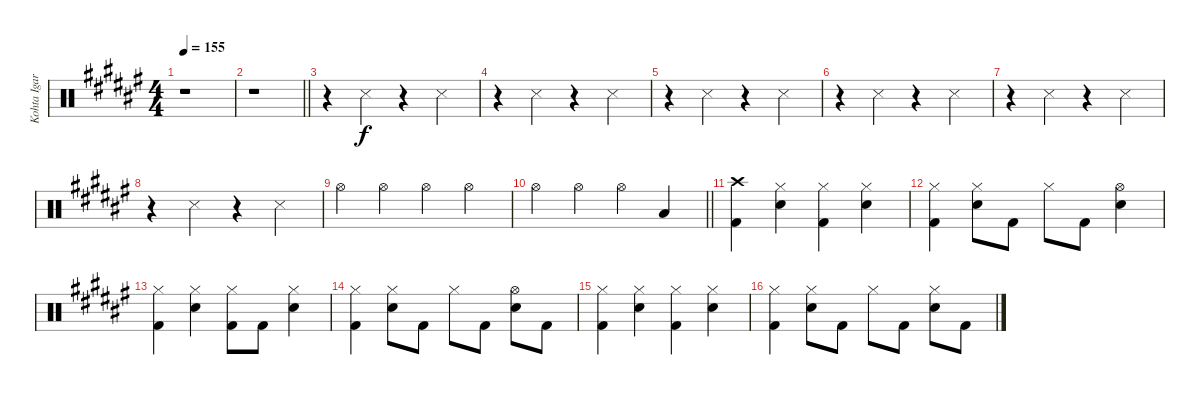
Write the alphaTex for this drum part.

\track ("Kohta Igarashi" "Kohta Igar") {instrument percussion}
\staff {score}
\articulation defaults
\ts (4 4)
\tempo 155
\clef neutral
\ks f#
r.1{dy f} |
\barLineRight lightlight
r.1 |
r.4 "Snare (side stick) 3".4 r.4 "Snare (side stick) 3".4 |
r.4 "Snare (side stick) 3".4 r.4 "Snare (side stick) 3".4 |
r.4 "Snare (side stick) 3".4 r.4 "Snare (side stick) 3".4 |
r.4 "Snare (side stick) 3".4 r.4 "Snare (side stick) 3".4 |
r.4 "Snare (side stick) 3".4 r.4 "Snare (side stick) 3".4 |
r.4 "Snare (side stick) 3".4 r.4 "Snare (side stick) 3".4 |
"Hi-Hat (open)".4 "Hi-Hat (open)".4 "Hi-Hat (open)".4 "Hi-Hat (open)".4 |
\barLineRight lightlight "Hi-Hat (open)".4 "Hi-Hat (open)".4 "Hi-Hat (open)".4 "Low Tom (hit)".4
|
("Crash high (hit)" "Kick (hit) 2").4 ("Hi-Hat (closed)" "Electric Snare (hit)").4 ("Hi-Hat (closed)" "Kick (hit) 2").4 ("Hi-Hat (closed)" "Electric Snare (hit)").4 |
("Hi-Hat (closed)" "Kick (hit) 2").4 ("Hi-Hat (closed)" "Electric Snare (hit)").8 "Kick (hit) 2".8 "Hi-Hat (closed)".8 "Kick (hit) 2".8 ("Hi-Hat (open)" "Electric Snare (hit)").4 |
("Hi-Hat (closed)" "Kick (hit) 2").4 ("Hi-Hat (closed)" "Electric Snare (hit)").4 ("Hi-Hat (closed)" "Kick (hit) 2").8 "Kick (hit) 2".8 ("Hi-Hat (closed)" "Electric Snare (hit)").4 |
("Hi-Hat (closed)" "Kick (hit) 2").4 ("Hi-Hat (closed)" "Electric Snare (hit)").8 "Kick (hit) 2".8 "Hi-Hat (closed)".8 "Kick (hit) 2".8 ("Hi-Hat (open)" "Electric Snare (hit)").8 "Kick (hit) 2".8 |
("Hi-Hat (closed)" "Kick (hit) 2").4 ("Hi-Hat (closed)" "Electric Snare (hit)").4 ("Hi-Hat (closed)" "Kick (hit) 2").4 ("Hi-Hat (closed)" "Electric Snare (hit)").4 |
("Hi-Hat (closed)" "Kick (hit) 2").4 ("Hi-Hat (closed)" "Electric Snare (hit)").8 "Kick (hit) 2".8 "Hi-Hat (closed)".8 "Kick (hit) 2".8 ("Hi-Hat (closed)" "Electric Snare (hit)").8 "Kick (hit) 2".8
